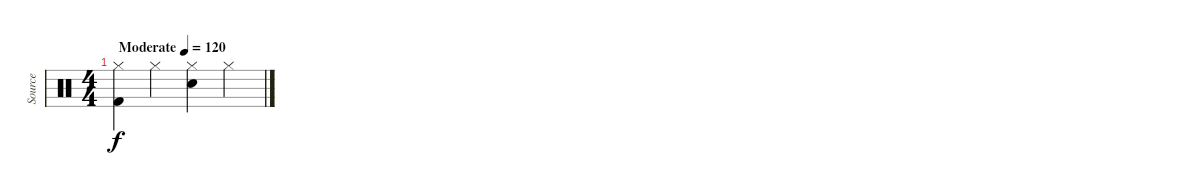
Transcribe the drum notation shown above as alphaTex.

\track ("Source" "Source") {instrument percussion}
\staff {score}
\articulation defaults
\ts (4 4)
\tempo (120 "Moderate")
\clef neutral
\ks c
("Hi-Hat (closed)" "Kick (hit) 2").4{dy f} "Hi-Hat (closed)".4 ("Hi-Hat (closed)" "Snare (hit) 2").4 "Hi-Hat (closed)".4
